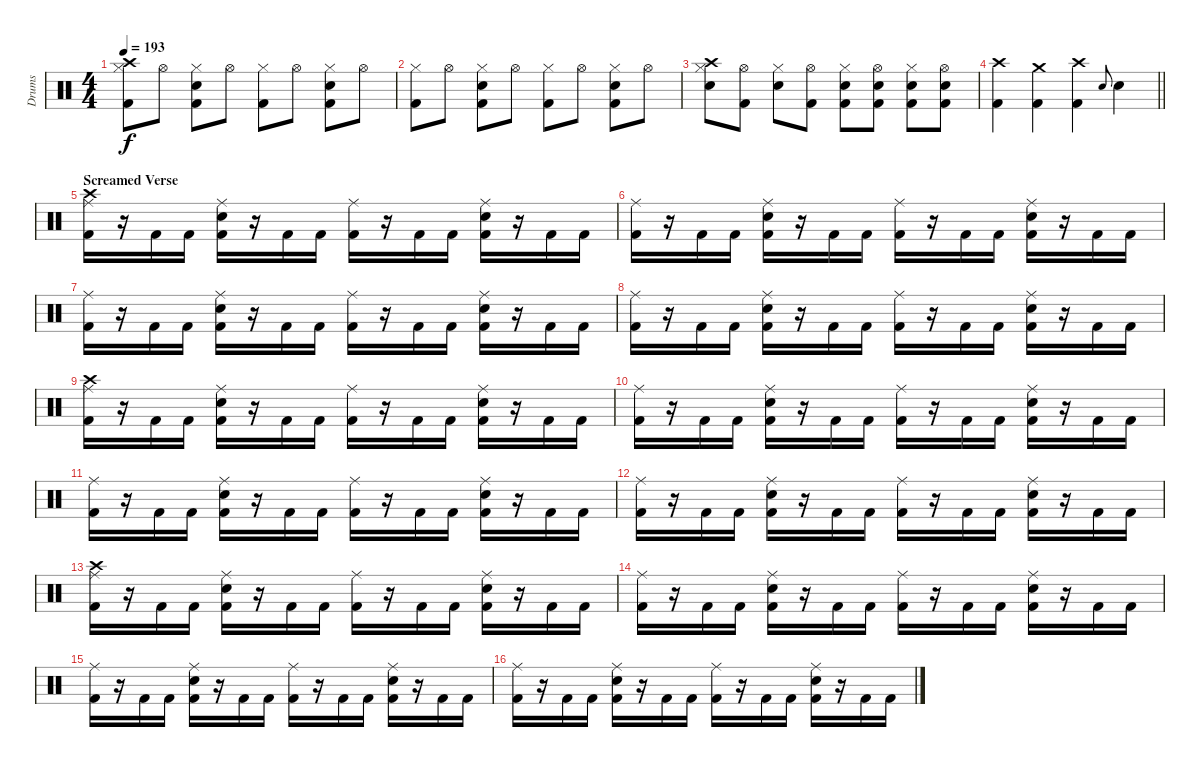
\track ("Drums" "Drums") {instrument percussion}
\staff {score}
\articulation defaults
\ts (4 4)
\tempo 193
\clef neutral
\ks c
("Crash high (hit)" "Hi-Hat (closed)" "Kick (hit) 2").8{dy f} "Hi-Hat (open)".8 ("Hi-Hat (closed)" "Snare (hit) 2" "Kick (hit) 2").8 "Hi-Hat (open)".8 ("Hi-Hat (closed)" "Kick (hit) 2").8 "Hi-Hat (open)".8 ("Hi-Hat (closed)" "Snare (hit) 2" "Kick (hit) 2").8 "Hi-Hat (open)".8 |
("Hi-Hat (closed)" "Kick (hit) 2").8 "Hi-Hat (open)".8 ("Hi-Hat (closed)" "Snare (hit) 2" "Kick (hit) 2").8 "Hi-Hat (open)".8 ("Hi-Hat (closed)" "Kick (hit) 2").8 "Hi-Hat (open)".8 ("Hi-Hat (closed)" "Snare (hit) 2" "Kick (hit) 2").8 "Hi-Hat (open)".8 |
("Crash high (hit)" "Hi-Hat (closed)" "Snare (hit) 2").8 ("Hi-Hat (open)" "Kick (hit) 2").8 ("Hi-Hat (closed)" "Snare (hit) 2").8 ("Hi-Hat (open)" "Kick (hit) 2").8 ("Hi-Hat (closed)" "Snare (hit) 2" "Kick (hit) 2").8 ("Hi-Hat (open)" "Snare (hit) 2" "Kick (hit) 2").8 ("Hi-Hat (closed)" "Snare (hit) 2" "Kick (hit) 2").8 ("Hi-Hat (open)" "Snare (hit) 2" "Kick (hit) 2").8 |
\barLineRight lightlight
("Crash high (hit)" "Kick (hit) 2").4 ("Crash medium (hit)" "Kick (hit) 2").4 ("Crash high (hit)" "Kick (hit) 2").4 "Snare (hit) 2".8{gr onbeat} "Snare (hit) 2".4 |
\section ("" "Screamed Verse")
("Crash high (hit)" "Ride (middle)" "Kick (hit) 2").16 r.16 "Kick (hit) 2".16 "Kick (hit) 2".16 ("Ride (middle)" "Snare (hit) 2" "Kick (hit) 2").16 r.16 "Kick (hit) 2".16 "Kick (hit) 2".16 ("Ride (middle)" "Kick (hit) 2").16 r.16 "Kick (hit) 2".16 "Kick (hit) 2".16 ("Ride (middle)" "Snare (hit) 2" "Kick (hit) 2").16 r.16 "Kick (hit) 2".16 "Kick (hit) 2".16 |
("Ride (middle)" "Kick (hit) 2").16 r.16 "Kick (hit) 2".16 "Kick (hit) 2".16 ("Ride (middle)" "Snare (hit) 2" "Kick (hit) 2").16 r.16 "Kick (hit) 2".16 "Kick (hit) 2".16 ("Ride (middle)" "Kick (hit) 2").16 r.16 "Kick (hit) 2".16 "Kick (hit) 2".16 ("Ride (middle)" "Snare (hit) 2" "Kick (hit) 2").16 r.16 "Kick (hit) 2".16 "Kick (hit) 2".16 |
("Ride (middle)" "Kick (hit) 2").16 r.16 "Kick (hit) 2".16 "Kick (hit) 2".16 ("Ride (middle)" "Snare (hit) 2" "Kick (hit) 2").16 r.16 "Kick (hit) 2".16 "Kick (hit) 2".16 ("Ride (middle)" "Kick (hit) 2").16 r.16 "Kick (hit) 2".16 "Kick (hit) 2".16 ("Ride (middle)" "Snare (hit) 2" "Kick (hit) 2").16 r.16 "Kick (hit) 2".16 "Kick (hit) 2".16 |
("Ride (middle)" "Kick (hit) 2").16 r.16 "Kick (hit) 2".16 "Kick (hit) 2".16 ("Ride (middle)" "Snare (hit) 2" "Kick (hit) 2").16 r.16 "Kick (hit) 2".16 "Kick (hit) 2".16 ("Ride (middle)" "Kick (hit) 2").16 r.16 "Kick (hit) 2".16 "Kick (hit) 2".16 ("Ride (middle)" "Snare (hit) 2" "Kick (hit) 2").16 r.16 "Kick (hit) 2".16 "Kick (hit) 2".16 |
("Crash high (hit)" "Ride (middle)" "Kick (hit) 2").16 r.16 "Kick (hit) 2".16 "Kick (hit) 2".16 ("Ride (middle)" "Snare (hit) 2" "Kick (hit) 2").16 r.16 "Kick (hit) 2".16 "Kick (hit) 2".16 ("Ride (middle)" "Kick (hit) 2").16 r.16 "Kick (hit) 2".16 "Kick (hit) 2".16 ("Ride (middle)" "Snare (hit) 2" "Kick (hit) 2").16 r.16 "Kick (hit) 2".16 "Kick (hit) 2".16 |
("Ride (middle)" "Kick (hit) 2").16 r.16 "Kick (hit) 2".16 "Kick (hit) 2".16 ("Ride (middle)" "Snare (hit) 2" "Kick (hit) 2").16 r.16 "Kick (hit) 2".16 "Kick (hit) 2".16 ("Ride (middle)" "Kick (hit) 2").16 r.16 "Kick (hit) 2".16 "Kick (hit) 2".16 ("Ride (middle)" "Snare (hit) 2" "Kick (hit) 2").16 r.16 "Kick (hit) 2".16 "Kick (hit) 2".16 |
("Ride (middle)" "Kick (hit) 2").16 r.16 "Kick (hit) 2".16 "Kick (hit) 2".16 ("Ride (middle)" "Snare (hit) 2" "Kick (hit) 2").16 r.16 "Kick (hit) 2".16 "Kick (hit) 2".16 ("Ride (middle)" "Kick (hit) 2").16 r.16 "Kick (hit) 2".16 "Kick (hit) 2".16 ("Ride (middle)" "Snare (hit) 2" "Kick (hit) 2").16 r.16 "Kick (hit) 2".16 "Kick (hit) 2".16 |
("Ride (middle)" "Kick (hit) 2").16 r.16 "Kick (hit) 2".16 "Kick (hit) 2".16 ("Ride (middle)" "Snare (hit) 2" "Kick (hit) 2").16 r.16 "Kick (hit) 2".16 "Kick (hit) 2".16 ("Ride (middle)" "Kick (hit) 2").16 r.16 "Kick (hit) 2".16 "Kick (hit) 2".16 ("Ride (middle)" "Snare (hit) 2" "Kick (hit) 2").16 r.16 "Kick (hit) 2".16 "Kick (hit) 2".16 |
("Crash high (hit)" "Ride (middle)" "Kick (hit) 2").16 r.16 "Kick (hit) 2".16 "Kick (hit) 2".16 ("Ride (middle)" "Snare (hit) 2" "Kick (hit) 2").16 r.16 "Kick (hit) 2".16 "Kick (hit) 2".16 ("Ride (middle)" "Kick (hit) 2").16 r.16 "Kick (hit) 2".16 "Kick (hit) 2".16 ("Ride (middle)" "Snare (hit) 2" "Kick (hit) 2").16 r.16 "Kick (hit) 2".16 "Kick (hit) 2".16 |
("Ride (middle)" "Kick (hit) 2").16 r.16 "Kick (hit) 2".16 "Kick (hit) 2".16 ("Ride (middle)" "Snare (hit) 2" "Kick (hit) 2").16 r.16 "Kick (hit) 2".16 "Kick (hit) 2".16 ("Ride (middle)" "Kick (hit) 2").16 r.16 "Kick (hit) 2".16 "Kick (hit) 2".16 ("Ride (middle)" "Snare (hit) 2" "Kick (hit) 2").16 r.16 "Kick (hit) 2".16 "Kick (hit) 2".16 |
("Ride (middle)" "Kick (hit) 2").16 r.16 "Kick (hit) 2".16 "Kick (hit) 2".16 ("Ride (middle)" "Snare (hit) 2" "Kick (hit) 2").16 r.16 "Kick (hit) 2".16 "Kick (hit) 2".16 ("Ride (middle)" "Kick (hit) 2").16 r.16 "Kick (hit) 2".16 "Kick (hit) 2".16 ("Ride (middle)" "Snare (hit) 2" "Kick (hit) 2").16 r.16 "Kick (hit) 2".16 "Kick (hit) 2".16 |
("Ride (middle)" "Kick (hit) 2").16 r.16 "Kick (hit) 2".16 "Kick (hit) 2".16 ("Ride (middle)" "Snare (hit) 2" "Kick (hit) 2").16 r.16 "Kick (hit) 2".16 "Kick (hit) 2".16 ("Ride (middle)" "Kick (hit) 2").16 r.16 "Kick (hit) 2".16 "Kick (hit) 2".16 ("Ride (middle)" "Snare (hit) 2" "Kick (hit) 2").16 r.16 "Kick (hit) 2".16 "Kick (hit) 2".16
